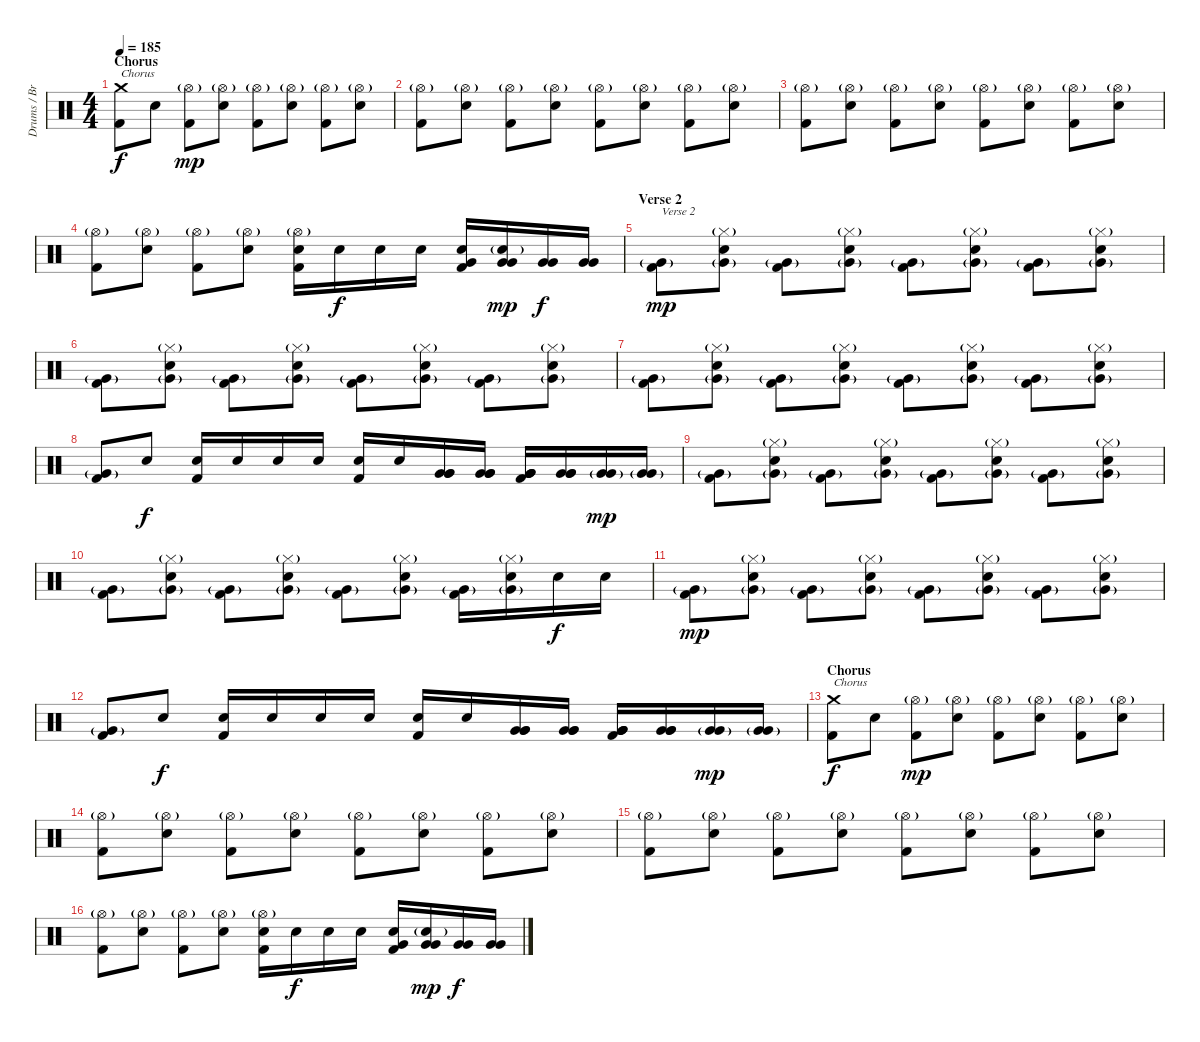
\track ("Drums / Brett" "Drums / Br") {instrument percussion}
\staff {score}
\articulation defaults
\ts (4 4)
\section ("" "Chorus")
\tempo 185
\clef neutral
\ks c
("Crash medium (hit)" "Kick (hit) 2").8{txt "Chorus" dy f} "Snare (hit) 2".8 ("Hi-Hat (open)"{g} "Kick (hit) 2").8{dy mp} ("Hi-Hat (open)"{g} "Snare (hit) 2").8 ("Hi-Hat (open)"{g} "Kick (hit) 2").8 ("Hi-Hat (open)"{g} "Snare (hit) 2").8 ("Hi-Hat (open)"{g} "Kick (hit) 2").8 ("Hi-Hat (open)"{g} "Snare (hit) 2").8 |
("Hi-Hat (open)"{g} "Kick (hit) 2").8 ("Hi-Hat (open)"{g} "Snare (hit) 2").8 ("Hi-Hat (open)"{g} "Kick (hit) 2").8 ("Hi-Hat (open)"{g} "Snare (hit) 2").8 ("Hi-Hat (open)"{g} "Kick (hit) 2").8 ("Hi-Hat (open)"{g} "Snare (hit) 2").8 ("Hi-Hat (open)"{g} "Kick (hit) 2").8 ("Hi-Hat (open)"{g} "Snare (hit) 2").8 |
("Hi-Hat (open)"{g} "Kick (hit) 2").8 ("Hi-Hat (open)"{g} "Snare (hit) 2").8 ("Hi-Hat (open)"{g} "Kick (hit) 2").8 ("Hi-Hat (open)"{g} "Snare (hit) 2").8 ("Hi-Hat (open)"{g} "Kick (hit) 2").8 ("Hi-Hat (open)"{g} "Snare (hit) 2").8 ("Hi-Hat (open)"{g} "Kick (hit) 2").8 ("Hi-Hat (open)"{g} "Snare (hit) 2").8 |
("Hi-Hat (open)"{g} "Kick (hit) 2").8 ("Hi-Hat (open)"{g} "Snare (hit) 2").8 ("Hi-Hat (open)"{g} "Kick (hit) 2").8 ("Hi-Hat (open)"{g} "Snare (hit) 2").8 ("Hi-Hat (open)"{g} "Snare (hit) 2" "Kick (hit) 2").16 "Snare (hit) 2".16{dy f} "Snare (hit) 2".16 "Snare (hit) 2".16 ("Snare (hit) 2" "Very Low Tom (hit)" "Kick (hit) 2").16 ("Very Low Tom (hit)" "Snare (hit) 2"{g} "Very Low Tom (hit)").16{dy mp} ("Very Low Tom (hit)" "Very Low Tom (hit)").16{dy f} ("Very Low Tom (hit)" "Very Low Tom (hit)").16 |
\section ("" "Verse 2")
("Very Low Tom (hit)"{g} "Kick (hit) 2").8{txt "Verse 2" dy mp} ("Very Low Tom (hit)"{g} "Hi-Hat (closed)"{g} "Snare (hit) 2").8 ("Very Low Tom (hit)"{g} "Kick (hit) 2").8 ("Very Low Tom (hit)"{g} "Hi-Hat (closed)"{g} "Snare (hit) 2").8 ("Very Low Tom (hit)"{g} "Kick (hit) 2").8 ("Very Low Tom (hit)"{g} "Hi-Hat (closed)"{g} "Snare (hit) 2").8 ("Very Low Tom (hit)"{g} "Kick (hit) 2").8 ("Very Low Tom (hit)"{g} "Hi-Hat (closed)"{g} "Snare (hit) 2").8 |
("Very Low Tom (hit)"{g} "Kick (hit) 2").8 ("Very Low Tom (hit)"{g} "Hi-Hat (closed)"{g} "Snare (hit) 2").8 ("Very Low Tom (hit)"{g} "Kick (hit) 2").8 ("Very Low Tom (hit)"{g} "Hi-Hat (closed)"{g} "Snare (hit) 2").8 ("Very Low Tom (hit)"{g} "Kick (hit) 2").8 ("Very Low Tom (hit)"{g} "Hi-Hat (closed)"{g} "Snare (hit) 2").8 ("Very Low Tom (hit)"{g} "Kick (hit) 2").8 ("Very Low Tom (hit)"{g} "Hi-Hat (closed)"{g} "Snare (hit) 2").8 |
("Very Low Tom (hit)"{g} "Kick (hit) 2").8 ("Very Low Tom (hit)"{g} "Hi-Hat (closed)"{g} "Snare (hit) 2").8 ("Very Low Tom (hit)"{g} "Kick (hit) 2").8 ("Very Low Tom (hit)"{g} "Hi-Hat (closed)"{g} "Snare (hit) 2").8 ("Very Low Tom (hit)"{g} "Kick (hit) 2").8 ("Very Low Tom (hit)"{g} "Hi-Hat (closed)"{g} "Snare (hit) 2").8 ("Very Low Tom (hit)"{g} "Kick (hit) 2").8 ("Very Low Tom (hit)"{g} "Hi-Hat (closed)"{g} "Snare (hit) 2").8 |
("Very Low Tom (hit)"{g} "Kick (hit) 2").8 "Snare (hit) 2".8{dy f} ("Snare (hit) 2" "Kick (hit) 2").16 "Snare (hit) 2".16 "Snare (hit) 2".16 "Snare (hit) 2".16 ("Snare (hit) 2" "Kick (hit) 2").16 "Snare (hit) 2".16 ("Very Low Tom (hit)" "Very Low Tom (hit)" "Very Low Tom (hit)").16 ("Very Low Tom (hit)" "Very Low Tom (hit)" "Very Low Tom (hit)").16 ("Very Low Tom (hit)" "Very Low Tom (hit)" "Very Low Tom (hit)" "Kick (hit) 2").16 ("Very Low Tom (hit)" "Very Low Tom (hit)" "Very Low Tom (hit)").16 ("Very Low Tom (hit)" "Very Low Tom (hit)"{g}).16{dy mp} ("Very Low Tom (hit)" "Very Low Tom (hit)"{g}).16 |
("Very Low Tom (hit)"{g} "Kick (hit) 2").8 ("Very Low Tom (hit)"{g} "Hi-Hat (closed)"{g} "Snare (hit) 2").8 ("Very Low Tom (hit)"{g} "Kick (hit) 2").8 ("Very Low Tom (hit)"{g} "Hi-Hat (closed)"{g} "Snare (hit) 2").8 ("Very Low Tom (hit)"{g} "Kick (hit) 2").8 ("Very Low Tom (hit)"{g} "Hi-Hat (closed)"{g} "Snare (hit) 2").8 ("Very Low Tom (hit)"{g} "Kick (hit) 2").8 ("Very Low Tom (hit)"{g} "Hi-Hat (closed)"{g} "Snare (hit) 2").8 |
("Very Low Tom (hit)"{g} "Kick (hit) 2").8 ("Very Low Tom (hit)"{g} "Hi-Hat (closed)"{g} "Snare (hit) 2").8 ("Very Low Tom (hit)"{g} "Kick (hit) 2").8 ("Very Low Tom (hit)"{g} "Hi-Hat (closed)"{g} "Snare (hit) 2").8 ("Very Low Tom (hit)"{g} "Kick (hit) 2").8 ("Very Low Tom (hit)"{g} "Hi-Hat (closed)"{g} "Snare (hit) 2").8 ("Very Low Tom (hit)"{g} "Kick (hit) 2").16 ("Very Low Tom (hit)"{g} "Hi-Hat (closed)"{g} "Snare (hit) 2").16 "Snare (hit) 2".16{dy f} "Snare (hit) 2".16 |
("Very Low Tom (hit)"{g} "Kick (hit) 2").8{dy mp} ("Very Low Tom (hit)"{g} "Hi-Hat (closed)"{g} "Snare (hit) 2").8 ("Very Low Tom (hit)"{g} "Kick (hit) 2").8 ("Very Low Tom (hit)"{g} "Hi-Hat (closed)"{g} "Snare (hit) 2").8 ("Very Low Tom (hit)"{g} "Kick (hit) 2").8 ("Very Low Tom (hit)"{g} "Hi-Hat (closed)"{g} "Snare (hit) 2").8 ("Very Low Tom (hit)"{g} "Kick (hit) 2").8 ("Very Low Tom (hit)"{g} "Hi-Hat (closed)"{g} "Snare (hit) 2").8 |
("Very Low Tom (hit)"{g} "Kick (hit) 2").8 "Snare (hit) 2".8{dy f} ("Snare (hit) 2" "Kick (hit) 2").16 "Snare (hit) 2".16 "Snare (hit) 2".16 "Snare (hit) 2".16 ("Snare (hit) 2" "Kick (hit) 2").16 "Snare (hit) 2".16 ("Very Low Tom (hit)" "Very Low Tom (hit)" "Very Low Tom (hit)").16 ("Very Low Tom (hit)" "Very Low Tom (hit)" "Very Low Tom (hit)").16 ("Very Low Tom (hit)" "Very Low Tom (hit)" "Very Low Tom (hit)" "Kick (hit) 2").16 ("Very Low Tom (hit)" "Very Low Tom (hit)" "Very Low Tom (hit)").16 ("Very Low Tom (hit)" "Very Low Tom (hit)"{g}).16{dy mp} ("Very Low Tom (hit)" "Very Low Tom (hit)"{g}).16 |
\section ("" "Chorus")
("Crash medium (hit)" "Kick (hit) 2").8{txt "Chorus" dy f} "Snare (hit) 2".8 ("Hi-Hat (open)"{g} "Kick (hit) 2").8{dy mp} ("Hi-Hat (open)"{g} "Snare (hit) 2").8 ("Hi-Hat (open)"{g} "Kick (hit) 2").8 ("Hi-Hat (open)"{g} "Snare (hit) 2").8 ("Hi-Hat (open)"{g} "Kick (hit) 2").8 ("Hi-Hat (open)"{g} "Snare (hit) 2").8 |
("Hi-Hat (open)"{g} "Kick (hit) 2").8 ("Hi-Hat (open)"{g} "Snare (hit) 2").8 ("Hi-Hat (open)"{g} "Kick (hit) 2").8 ("Hi-Hat (open)"{g} "Snare (hit) 2").8 ("Hi-Hat (open)"{g} "Kick (hit) 2").8 ("Hi-Hat (open)"{g} "Snare (hit) 2").8 ("Hi-Hat (open)"{g} "Kick (hit) 2").8 ("Hi-Hat (open)"{g} "Snare (hit) 2").8 |
("Hi-Hat (open)"{g} "Kick (hit) 2").8 ("Hi-Hat (open)"{g} "Snare (hit) 2").8 ("Hi-Hat (open)"{g} "Kick (hit) 2").8 ("Hi-Hat (open)"{g} "Snare (hit) 2").8 ("Hi-Hat (open)"{g} "Kick (hit) 2").8 ("Hi-Hat (open)"{g} "Snare (hit) 2").8 ("Hi-Hat (open)"{g} "Kick (hit) 2").8 ("Hi-Hat (open)"{g} "Snare (hit) 2").8 |
("Hi-Hat (open)"{g} "Kick (hit) 2").8 ("Hi-Hat (open)"{g} "Snare (hit) 2").8 ("Hi-Hat (open)"{g} "Kick (hit) 2").8 ("Hi-Hat (open)"{g} "Snare (hit) 2").8 ("Hi-Hat (open)"{g} "Snare (hit) 2" "Kick (hit) 2").16 "Snare (hit) 2".16{dy f} "Snare (hit) 2".16 "Snare (hit) 2".16 ("Snare (hit) 2" "Very Low Tom (hit)" "Kick (hit) 2").16 ("Very Low Tom (hit)" "Snare (hit) 2"{g} "Very Low Tom (hit)").16{dy mp} ("Very Low Tom (hit)" "Very Low Tom (hit)").16{dy f} ("Very Low Tom (hit)" "Very Low Tom (hit)").16
